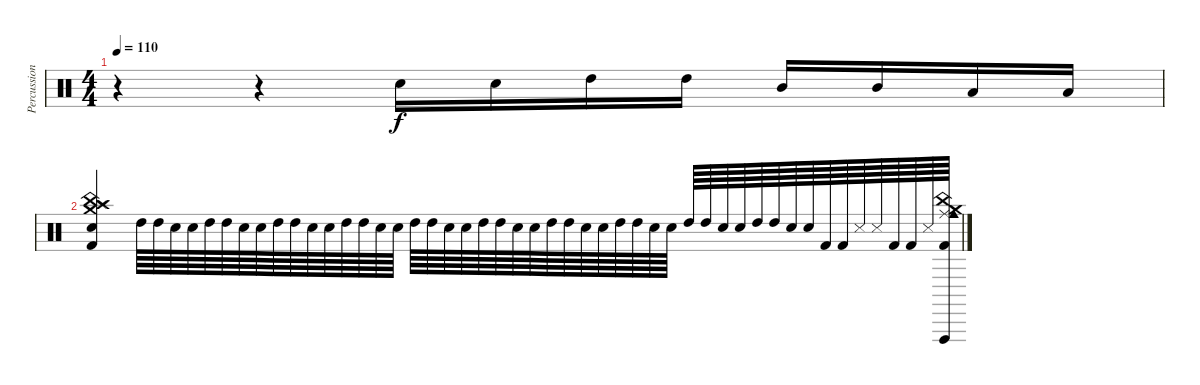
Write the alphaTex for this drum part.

\track ("Percussion" "Percussion") {instrument percussion}
\staff {score}
\articulation defaults
\ts (4 4)
\tempo 110
\clef neutral
\ks c
r.4{dy f} r.4 "Snare (hit) 2".16 "Snare (hit) 2".16 "High Tom (hit)".16 "High Tom (hit)".16 "Mid Tom (hit)".16 "Mid Tom (hit)".16 "Low Floor Tom (hit)".16 "Low Floor Tom (hit)".16 |
("Crash high (hit)" "Crash medium (hit)" "Splash (hit)" "China (hit)" "Snare (hit) 2" "Kick (hit) 2").4 "High Tom (hit)".64 "High Tom (hit)".64 "Snare (hit) 2".64 "Snare (hit) 2".64 "High Tom (hit)".64 "High Tom (hit)".64 "Snare (hit) 2".64 "Snare (hit) 2".64 "High Tom (hit)".64 "High Tom (hit)".64 "Snare (hit) 2".64 "Snare (hit) 2".64 "High Tom (hit)".64 "High Tom (hit)".64 "Snare (hit) 2".64 "Snare (hit) 2".64 "High Tom (hit)".64 "High Tom (hit)".64 "Snare (hit) 2".64 "Snare (hit) 2".64 "High Tom (hit)".64 "High Tom (hit)".64 "Snare (hit) 2".64 "Snare (hit) 2".64 "High Tom (hit)".64 "High Tom (hit)".64 "Snare (hit) 2".64 "Snare (hit) 2".64 "High Tom (hit)".64 "High Tom (hit)".64 "Snare (hit) 2".64 "Snare (hit) 2".64 "High Tom (hit)".64 "High Tom (hit)".64 "Snare (hit) 2".64 "Snare (hit) 2".64 "High Tom (hit)".64 "High Tom (hit)".64 "Snare (hit) 2".64 "Snare (hit) 2".64 "Kick (hit) 2".64 "Kick (hit) 2".64 "Snare (side stick) 3".64 "Snare (side stick) 3".64 "Kick (hit) 2".64 "Kick (hit) 2".64 "Snare (side stick) 3".64 ("Kick (hit) 2" "China (hit)" "Ride (middle)" "Cowbell medium (hit)" "Crash medium (hit)" "Vibraslap (hit)").64
